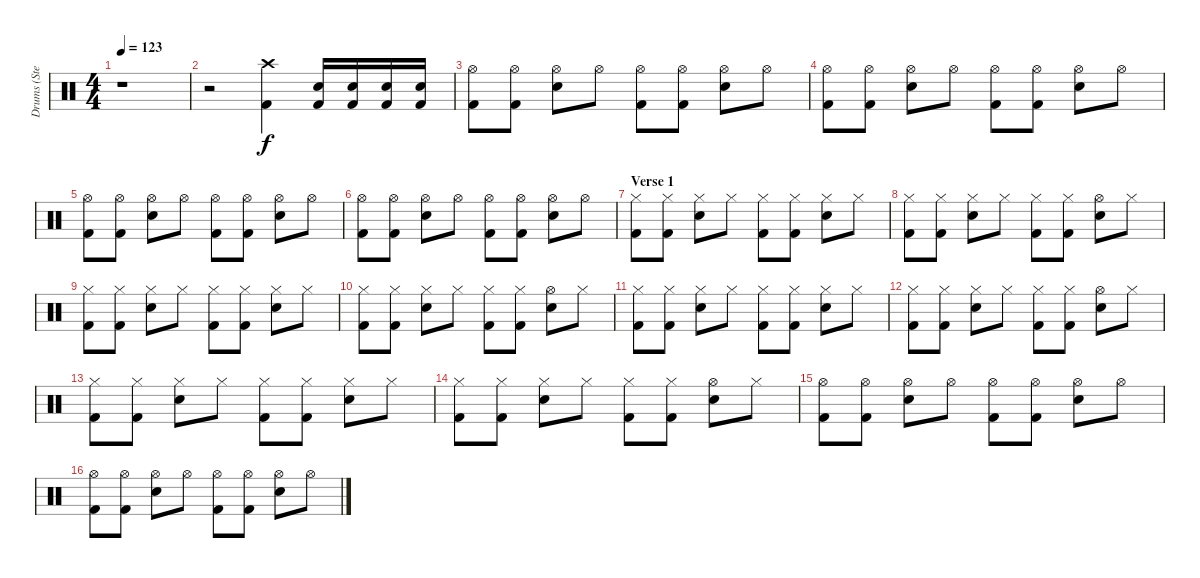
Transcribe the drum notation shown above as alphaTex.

\track ("Drums (Steve)" "Drums (Ste") {instrument percussion}
\staff {score}
\articulation defaults
\ts (4 4)
\tempo 123
\clef neutral
\ks c
r.1{dy f} |
r.2 ("Crash high (hit)" "Kick (hit) 2").4 ("Snare (hit) 2" "Kick (hit) 2").16 ("Snare (hit) 2" "Kick (hit) 2").16 ("Snare (hit) 2" "Kick (hit) 2").16 ("Snare (hit) 2" "Kick (hit) 2").16 |
("Hi-Hat (open)" "Kick (hit) 2").8 ("Hi-Hat (open)" "Kick (hit) 2").8 ("Hi-Hat (open)" "Snare (hit) 2").8 "Hi-Hat (open)".8 ("Hi-Hat (open)" "Kick (hit) 2").8 ("Hi-Hat (open)" "Kick (hit) 2").8 ("Hi-Hat (open)" "Snare (hit) 2").8 "Hi-Hat (open)".8 |
("Hi-Hat (open)" "Kick (hit) 2").8 ("Hi-Hat (open)" "Kick (hit) 2").8 ("Hi-Hat (open)" "Snare (hit) 2").8 "Hi-Hat (open)".8 ("Hi-Hat (open)" "Kick (hit) 2").8 ("Hi-Hat (open)" "Kick (hit) 2").8 ("Hi-Hat (open)" "Snare (hit) 2").8 "Hi-Hat (open)".8 |
("Hi-Hat (open)" "Kick (hit) 2").8 ("Hi-Hat (open)" "Kick (hit) 2").8 ("Hi-Hat (open)" "Snare (hit) 2").8 "Hi-Hat (open)".8 ("Hi-Hat (open)" "Kick (hit) 2").8 ("Hi-Hat (open)" "Kick (hit) 2").8 ("Hi-Hat (open)" "Snare (hit) 2").8 "Hi-Hat (open)".8 |
("Hi-Hat (open)" "Kick (hit) 2").8 ("Hi-Hat (open)" "Kick (hit) 2").8 ("Hi-Hat (open)" "Snare (hit) 2").8 "Hi-Hat (open)".8 ("Hi-Hat (open)" "Kick (hit) 2").8 ("Hi-Hat (open)" "Kick (hit) 2").8 ("Hi-Hat (open)" "Snare (hit) 2").8 "Hi-Hat (open)".8 |
\section ("" "Verse 1")
("Hi-Hat (closed)" "Kick (hit) 2").8 ("Hi-Hat (closed)" "Kick (hit) 2").8 ("Hi-Hat (closed)" "Snare (hit) 2").8 "Hi-Hat (closed)".8 ("Hi-Hat (closed)" "Kick (hit) 2").8 ("Hi-Hat (closed)" "Kick (hit) 2").8 ("Hi-Hat (closed)" "Snare (hit) 2").8 "Hi-Hat (closed)".8 |
("Hi-Hat (closed)" "Kick (hit) 2").8 ("Hi-Hat (closed)" "Kick (hit) 2").8 ("Hi-Hat (closed)" "Snare (hit) 2").8 "Hi-Hat (closed)".8 ("Hi-Hat (closed)" "Kick (hit) 2").8 ("Hi-Hat (closed)" "Kick (hit) 2").8 ("Hi-Hat (open)" "Snare (hit) 2").8 "Hi-Hat (closed)".8 |
("Hi-Hat (closed)" "Kick (hit) 2").8 ("Hi-Hat (closed)" "Kick (hit) 2").8 ("Hi-Hat (closed)" "Snare (hit) 2").8 "Hi-Hat (closed)".8 ("Hi-Hat (closed)" "Kick (hit) 2").8 ("Hi-Hat (closed)" "Kick (hit) 2").8 ("Hi-Hat (closed)" "Snare (hit) 2").8 "Hi-Hat (closed)".8 |
("Hi-Hat (closed)" "Kick (hit) 2").8 ("Hi-Hat (closed)" "Kick (hit) 2").8 ("Hi-Hat (closed)" "Snare (hit) 2").8 "Hi-Hat (closed)".8 ("Hi-Hat (closed)" "Kick (hit) 2").8 ("Hi-Hat (closed)" "Kick (hit) 2").8 ("Hi-Hat (open)" "Snare (hit) 2").8 "Hi-Hat (closed)".8 |
("Hi-Hat (closed)" "Kick (hit) 2").8 ("Hi-Hat (closed)" "Kick (hit) 2").8 ("Hi-Hat (closed)" "Snare (hit) 2").8 "Hi-Hat (closed)".8 ("Hi-Hat (closed)" "Kick (hit) 2").8 ("Hi-Hat (closed)" "Kick (hit) 2").8 ("Hi-Hat (closed)" "Snare (hit) 2").8 "Hi-Hat (closed)".8 |
("Hi-Hat (closed)" "Kick (hit) 2").8 ("Hi-Hat (closed)" "Kick (hit) 2").8 ("Hi-Hat (closed)" "Snare (hit) 2").8 "Hi-Hat (closed)".8 ("Hi-Hat (closed)" "Kick (hit) 2").8 ("Hi-Hat (closed)" "Kick (hit) 2").8 ("Hi-Hat (open)" "Snare (hit) 2").8 "Hi-Hat (closed)".8 |
("Hi-Hat (closed)" "Kick (hit) 2").8 ("Hi-Hat (closed)" "Kick (hit) 2").8 ("Hi-Hat (closed)" "Snare (hit) 2").8 "Hi-Hat (closed)".8 ("Hi-Hat (closed)" "Kick (hit) 2").8 ("Hi-Hat (closed)" "Kick (hit) 2").8 ("Hi-Hat (closed)" "Snare (hit) 2").8 "Hi-Hat (closed)".8 |
("Hi-Hat (closed)" "Kick (hit) 2").8 ("Hi-Hat (closed)" "Kick (hit) 2").8 ("Hi-Hat (closed)" "Snare (hit) 2").8 "Hi-Hat (closed)".8 ("Hi-Hat (closed)" "Kick (hit) 2").8 ("Hi-Hat (closed)" "Kick (hit) 2").8 ("Hi-Hat (open)" "Snare (hit) 2").8 "Hi-Hat (closed)".8 |
("Hi-Hat (open)" "Kick (hit) 2").8 ("Hi-Hat (open)" "Kick (hit) 2").8 ("Hi-Hat (open)" "Snare (hit) 2").8 "Hi-Hat (open)".8 ("Hi-Hat (open)" "Kick (hit) 2").8 ("Hi-Hat (open)" "Kick (hit) 2").8 ("Hi-Hat (open)" "Snare (hit) 2").8 "Hi-Hat (open)".8 |
("Hi-Hat (open)" "Kick (hit) 2").8 ("Hi-Hat (open)" "Kick (hit) 2").8 ("Hi-Hat (open)" "Snare (hit) 2").8 "Hi-Hat (open)".8 ("Hi-Hat (open)" "Kick (hit) 2").8 ("Hi-Hat (open)" "Kick (hit) 2").8 ("Hi-Hat (open)" "Snare (hit) 2").8 "Hi-Hat (open)".8
